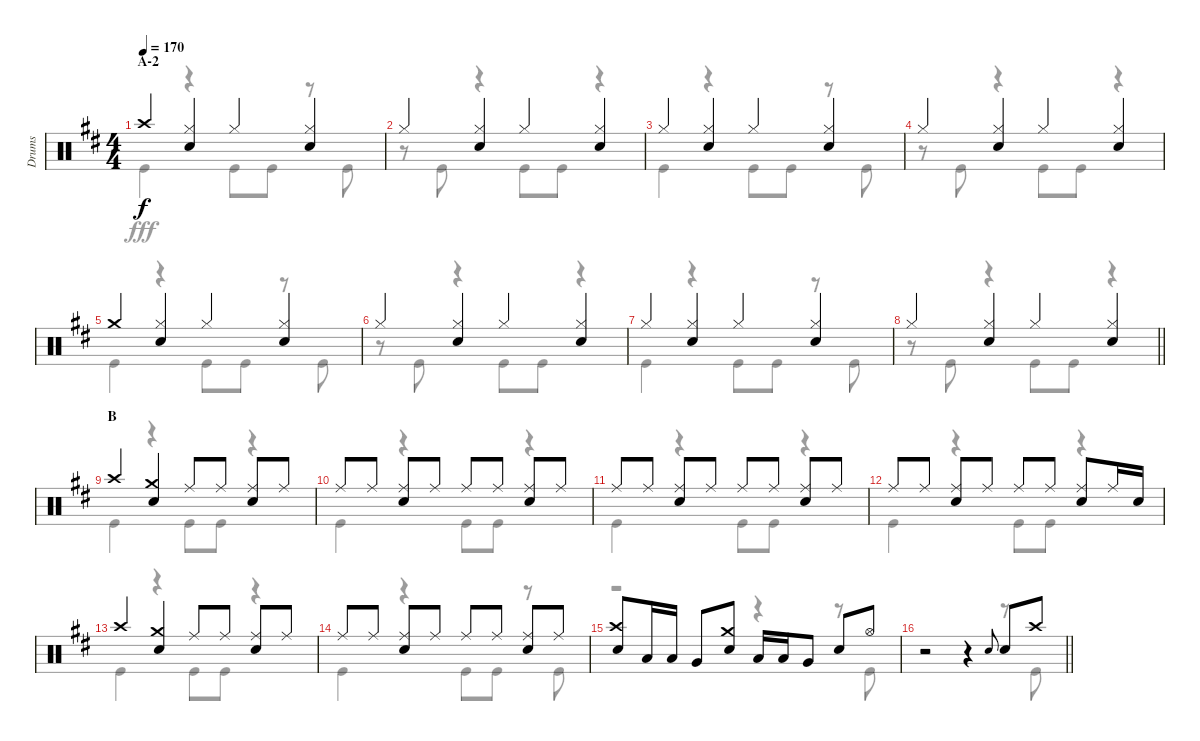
\track ("Drums" "Drums") {instrument percussion}
\staff {score}
\articulation defaults
\voice
\ts (4 4)
\section ("" "A-2")
\tempo 170
\clef neutral
\ks d "Crash high (hit)".4{dy f}
("Hi-Hat (closed)" "Snare (hit) 2").4 "Hi-Hat (closed)".4 ("Hi-Hat (closed)" "Snare (hit) 2").4 |
"Hi-Hat (closed)".4 ("Hi-Hat (closed)" "Snare (hit) 2").4 "Hi-Hat (closed)".4 ("Hi-Hat (closed)" "Snare (hit) 2").4 |
"Hi-Hat (closed)".4 ("Hi-Hat (closed)" "Snare (hit) 2").4 "Hi-Hat (closed)".4 ("Hi-Hat (closed)" "Snare (hit) 2").4 |
"Hi-Hat (closed)".4 ("Hi-Hat (closed)" "Snare (hit) 2").4 "Hi-Hat (closed)".4 ("Hi-Hat (closed)" "Snare (hit) 2").4 |
"Crash medium (hit)".4 ("Hi-Hat (closed)" "Snare (hit) 2").4 "Hi-Hat (closed)".4 ("Hi-Hat (closed)" "Snare (hit) 2").4 |
"Hi-Hat (closed)".4 ("Hi-Hat (closed)" "Snare (hit) 2").4 "Hi-Hat (closed)".4 ("Hi-Hat (closed)" "Snare (hit) 2").4 |
"Hi-Hat (closed)".4 ("Hi-Hat (closed)" "Snare (hit) 2").4 "Hi-Hat (closed)".4 ("Hi-Hat (closed)" "Snare (hit) 2").4 |
\barLineRight lightlight "Hi-Hat (closed)".4
("Hi-Hat (closed)" "Snare (hit) 2").4 "Hi-Hat (closed)".4 ("Hi-Hat (closed)" "Snare (hit) 2").4 |
\section ("" "B")
"Crash high (hit)".4 ("Crash medium (hit)" "Snare (hit) 2").4 "Ride (middle)".8 "Ride (middle)".8 ("Ride (middle)" "Snare (hit) 2").8 "Ride (middle)".8 |
"Ride (middle)".8 "Ride (middle)".8 ("Ride (middle)" "Snare (hit) 2").8 "Ride (middle)".8 "Ride (middle)".8 "Ride (middle)".8 ("Ride (middle)" "Snare (hit) 2").8 "Ride (middle)".8 |
"Ride (middle)".8 "Ride (middle)".8 ("Ride (middle)" "Snare (hit) 2").8 "Ride (middle)".8 "Ride (middle)".8 "Ride (middle)".8 ("Ride (middle)" "Snare (hit) 2").8 "Ride (middle)".8 |
"Ride (middle)".8 "Ride (middle)".8 ("Ride (middle)" "Snare (hit) 2").8 "Ride (middle)".8 "Ride (middle)".8 "Ride (middle)".8 ("Ride (middle)" "Snare (hit) 2").8 "Ride (middle)".16 "Snare (hit) 2".16 |
"Crash high (hit)".4 ("Crash medium (hit)" "Snare (hit) 2").4 "Ride (middle)".8 "Ride (middle)".8 ("Ride (middle)" "Snare (hit) 2").8 "Ride (middle)".8 |
"Ride (middle)".8 "Ride (middle)".8 ("Ride (middle)" "Snare (hit) 2").8 "Ride (middle)".8 "Ride (middle)".8 "Ride (middle)".8 ("Ride (middle)" "Snare (hit) 2").8 "Ride (middle)".8 |
("Crash high (hit)" "Snare (hit) 2").8 "Low Tom (hit)".16 "Low Tom (hit)".16 "Very Low Tom (hit)".8 ("Crash medium (hit)" "Snare (hit) 2").8 "Low Tom (hit)".16 "Low Tom (hit)".16 "Very Low Tom (hit)".8 "Snare (hit) 2".8 "Hi-Hat (open)".8 |
\barLineRight lightlight
r.2 r.4 "Snare (hit) 2".8{gr onbeat} "Snare (hit) 2".8 "Crash high (hit)".8
\voice
\clef neutral
\ottava regular
\simile none
\ks d "Kick (hit)".4{dy fff}
r.4 "Kick (hit)".8 "Kick (hit)".8 r.8 "Kick (hit)".8 |
r.8 "Kick (hit)".8 r.4 "Kick (hit)".8 "Kick (hit)".8 r.4 |
"Kick (hit)".4 r.4 "Kick (hit)".8 "Kick (hit)".8 r.8 "Kick (hit)".8 |
r.8 "Kick (hit)".8 r.4 "Kick (hit)".8 "Kick (hit)".8 r.4 |
"Kick (hit)".4 r.4 "Kick (hit)".8 "Kick (hit)".8 r.8 "Kick (hit)".8 |
r.8 "Kick (hit)".8 r.4 "Kick (hit)".8 "Kick (hit)".8 r.4 |
"Kick (hit)".4 r.4 "Kick (hit)".8 "Kick (hit)".8 r.8 "Kick (hit)".8 |
\barLineRight lightlight
r.8 "Kick (hit)".8 r.4 "Kick (hit)".8 "Kick (hit)".8 r.4 |
"Kick (hit)".4 r.4 "Kick (hit)".8 "Kick (hit)".8 r.4 |
"Kick (hit)".4 r.4 "Kick (hit)".8 "Kick (hit)".8 r.4 |
"Kick (hit)".4 r.4 "Kick (hit)".8 "Kick (hit)".8 r.4 |
"Kick (hit)".4 r.4 "Kick (hit)".8 "Kick (hit)".8 r.4 |
"Kick (hit)".4 r.4 "Kick (hit)".8 "Kick (hit)".8 r.4 |
"Kick (hit)".4 r.4 "Kick (hit)".8 "Kick (hit)".8 r.8 "Kick (hit)".8 |
r.2 r.4 r.8 "Kick (hit)".8 |
\barLineRight lightlight
r.2 r.4 r.8 "Kick (hit)".8
